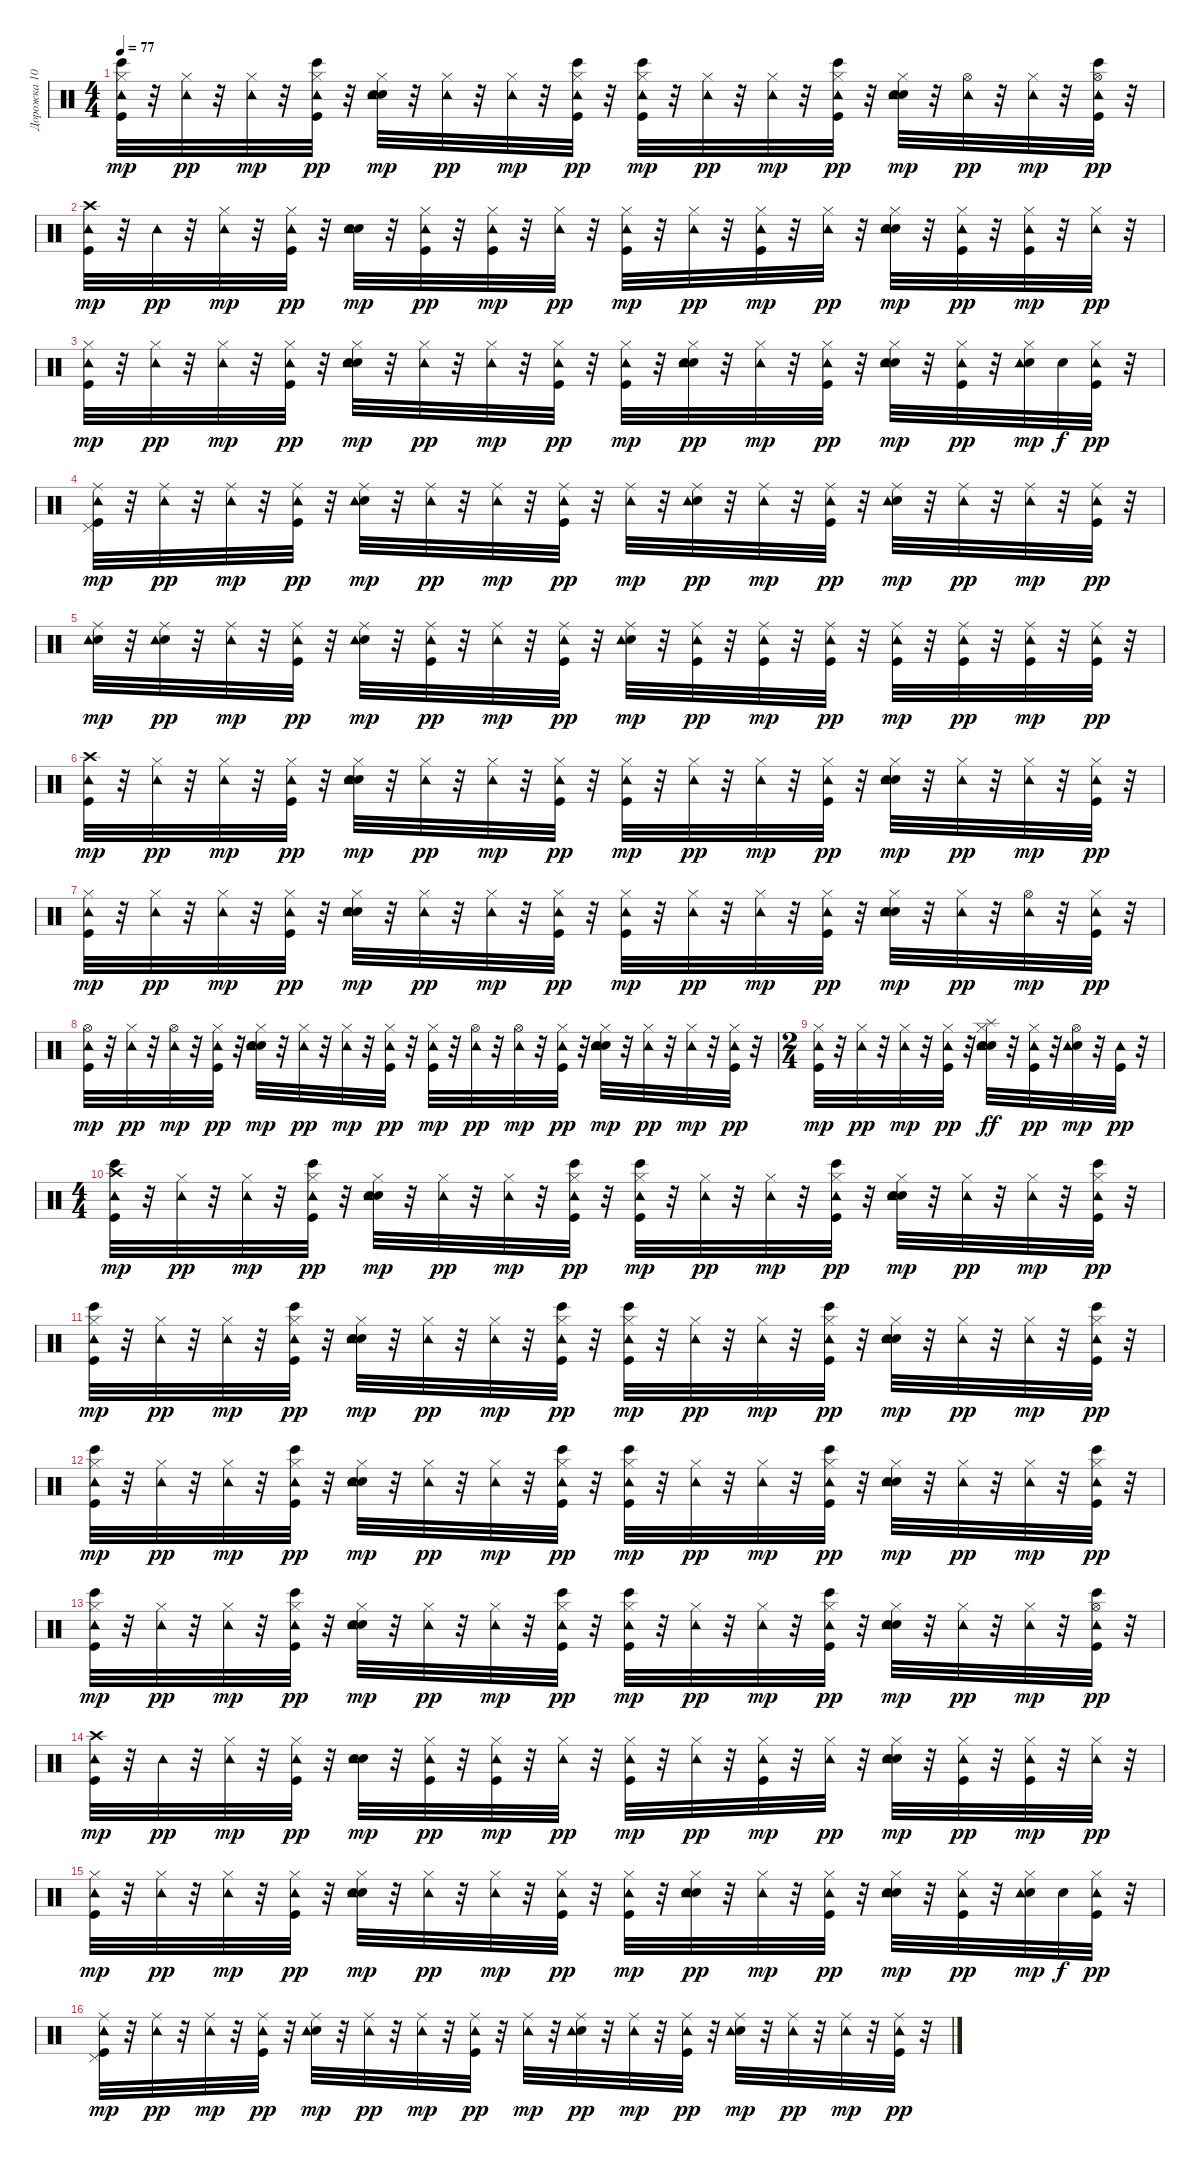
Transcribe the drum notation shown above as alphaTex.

\track ("Дорожка 10" "Дорожка 10") {instrument percussion}
\staff {score}
\articulation defaults
\ts (4 4)
\tempo 77
\clef neutral
\ks c
("Bongo High (hit)" "Kick (hit)" "Hi-Hat (closed)" "Tambourine (hit)").32{dy mp} r.32 ("Hi-Hat (closed)" "Tambourine (hit)").32{dy pp} r.32 ("Hi-Hat (closed)" "Tambourine (hit)").32{dy mp} r.32 ("Bongo High (hit)" "Kick (hit)" "Hi-Hat (closed)" "Tambourine (hit)").32{dy pp} r.32 ("Snare (hit) 2" "Hand Clap (hit)" "Hi-Hat (closed)" "Tambourine (hit)").32{dy mp} r.32 ("Hi-Hat (closed)" "Tambourine (hit)").32{dy pp} r.32 ("Hi-Hat (closed)" "Tambourine (hit)").32{dy mp} r.32 ("Bongo High (hit)" "Kick (hit)" "Hi-Hat (closed)" "Tambourine (hit)").32{dy pp} r.32 ("Bongo High (hit)" "Kick (hit)" "Hi-Hat (closed)" "Tambourine (hit)").32{dy mp} r.32 ("Hi-Hat (closed)" "Tambourine (hit)").32{dy pp} r.32 ("Hi-Hat (closed)" "Tambourine (hit)").32{dy mp} r.32 ("Bongo High (hit)" "Kick (hit)" "Hi-Hat (closed)" "Tambourine (hit)").32{dy pp} r.32 ("Snare (hit) 2" "Hand Clap (hit)" "Hi-Hat (closed)" "Tambourine (hit)").32{dy mp} r.32 ("Hi-Hat (open)" "Tambourine (hit)").32{dy pp} r.32 ("Hi-Hat (closed)" "Tambourine (hit)").32{dy mp} r.32 ("Bongo High (hit)" "Kick (hit)" "Hi-Hat (open)" "Tambourine (hit)").32{dy pp} r.32 |
("Kick (hit)" "Crash high (hit)" "Tambourine (hit)").32{dy mp} r.32 "Tambourine (hit)".32{dy pp} r.32 ("Hi-Hat (closed)" "Tambourine (hit)").32{dy mp} r.32 ("Kick (hit)" "Hi-Hat (closed)" "Tambourine (hit)").32{dy pp} r.32 ("Snare (hit) 2" "Hand Clap (hit)" "Tambourine (hit)").32{dy mp} r.32 ("Kick (hit)" "Hi-Hat (closed)" "Tambourine (hit)").32{dy pp} r.32 ("Kick (hit)" "Hi-Hat (closed)" "Tambourine (hit)").32{dy mp} r.32 ("Hi-Hat (closed)" "Tambourine (hit)").32{dy pp} r.32 ("Kick (hit)" "Hi-Hat (closed)" "Tambourine (hit)").32{dy mp} r.32 ("Hi-Hat (closed)" "Tambourine (hit)").32{dy pp} r.32 ("Kick (hit)" "Hi-Hat (closed)" "Tambourine (hit)").32{dy mp} r.32 ("Hi-Hat (closed)" "Tambourine (hit)").32{dy pp} r.32 ("Snare (hit) 2" "Hand Clap (hit)" "Hi-Hat (closed)" "Tambourine (hit)").32{dy mp} r.32 ("Kick (hit)" "Hi-Hat (closed)" "Tambourine (hit)").32{dy pp} r.32 ("Kick (hit)" "Hi-Hat (closed)" "Tambourine (hit)").32{dy mp} r.32 ("Hi-Hat (closed)" "Tambourine (hit)").32{dy pp} r.32 |
("Kick (hit)" "Hi-Hat (closed)" "Tambourine (hit)").32{dy mp} r.32 ("Hi-Hat (closed)" "Tambourine (hit)").32{dy pp} r.32 ("Hi-Hat (closed)" "Tambourine (hit)").32{dy mp} r.32 ("Kick (hit)" "Hi-Hat (closed)" "Tambourine (hit)").32{dy pp} r.32 ("Snare (hit) 2" "Hand Clap (hit)" "Hi-Hat (closed)" "Tambourine (hit)").32{dy mp} r.32 ("Hi-Hat (closed)" "Tambourine (hit)").32{dy pp} r.32 ("Hi-Hat (closed)" "Tambourine (hit)").32{dy mp} r.32 ("Kick (hit)" "Hi-Hat (closed)" "Tambourine (hit)").32{dy pp} r.32 ("Kick (hit)" "Hi-Hat (closed)" "Tambourine (hit)").32{dy mp} r.32 ("Snare (hit) 2" "Hand Clap (hit)" "Hi-Hat (closed)" "Tambourine (hit)").32{dy pp} r.32 ("Hi-Hat (closed)" "Tambourine (hit)").32{dy mp} r.32 ("Kick (hit)" "Hi-Hat (closed)" "Tambourine (hit)").32{dy pp} r.32 ("Snare (hit) 2" "Hand Clap (hit)" "Hi-Hat (closed)" "Tambourine (hit)").32{dy mp} r.32 ("Kick (hit)" "Hi-Hat (closed)" "Tambourine (hit)").32{dy pp} r.32 ("Snare (hit) 2" "Hi-Hat (closed)" "Tambourine (hit)").32{dy mp} "Snare (hit) 2".32{dy f} ("Kick (hit)" "Hi-Hat (closed)" "Tambourine (hit)").32{dy pp} r.32 |
("Kick (hit)" "Pedal Hi-Hat (hit)" "Ride (middle)" "Tambourine (hit)").32{dy mp} r.32 ("Ride (middle)" "Tambourine (hit)").32{dy pp} r.32 ("Ride (middle)" "Tambourine (hit)").32{dy mp} r.32 ("Kick (hit)" "Ride (middle)" "Tambourine (hit)").32{dy pp} r.32 ("Snare (hit) 2" "Ride (middle)" "Tambourine (hit)").32{dy mp} r.32 ("Ride (middle)" "Tambourine (hit)").32{dy pp} r.32 ("Ride (middle)" "Tambourine (hit)").32{dy mp} r.32 ("Kick (hit)" "Ride (middle)" "Tambourine (hit)").32{dy pp} r.32 ("Ride (middle)" "Tambourine (hit)").32{dy mp} r.32 ("Snare (hit) 2" "Ride (middle)" "Tambourine (hit)").32{dy pp} r.32 ("Ride (middle)" "Tambourine (hit)").32{dy mp} r.32 ("Kick (hit)" "Ride (middle)" "Tambourine (hit)").32{dy pp} r.32 ("Snare (hit) 2" "Ride (middle)" "Tambourine (hit)").32{dy mp} r.32 ("Ride (middle)" "Tambourine (hit)").32{dy pp} r.32 ("Ride (middle)" "Tambourine (hit)").32{dy mp} r.32 ("Kick (hit)" "Ride (middle)" "Tambourine (hit)").32{dy pp} r.32 |
("Snare (hit) 2" "Ride (middle)" "Tambourine (hit)").32{dy mp} r.32 ("Snare (hit) 2" "Ride (middle)" "Tambourine (hit)").32{dy pp} r.32 ("Ride (middle)" "Tambourine (hit)").32{dy mp} r.32 ("Kick (hit)" "Ride (middle)" "Tambourine (hit)").32{dy pp} r.32 ("Snare (hit) 2" "Ride (middle)" "Tambourine (hit)").32{dy mp} r.32 ("Kick (hit)" "Ride (middle)" "Tambourine (hit)").32{dy pp} r.32 ("Ride (middle)" "Tambourine (hit)").32{dy mp} r.32 ("Kick (hit)" "Ride (middle)" "Tambourine (hit)").32{dy pp} r.32 ("Snare (hit) 2" "Ride (middle)" "Tambourine (hit)").32{dy mp} r.32 ("Kick (hit)" "Ride (middle)" "Tambourine (hit)").32{dy pp} r.32 ("Kick (hit)" "Ride (middle)" "Tambourine (hit)").32{dy mp} r.32 ("Kick (hit)" "Ride (middle)" "Tambourine (hit)").32{dy pp} r.32 ("Kick (hit)" "Ride (middle)" "Tambourine (hit)").32{dy mp} r.32 ("Kick (hit)" "Ride (middle)" "Tambourine (hit)").32{dy pp} r.32 ("Kick (hit)" "Ride (middle)" "Tambourine (hit)").32{dy mp} r.32 ("Kick (hit)" "Ride (middle)" "Tambourine (hit)").32{dy pp} r.32 |
("Kick (hit)" "Crash high (hit)" "Tambourine (hit)").32{dy mp} r.32 ("Hi-Hat (closed)" "Tambourine (hit)").32{dy pp} r.32 ("Hi-Hat (closed)" "Tambourine (hit)").32{dy mp} r.32 ("Kick (hit)" "Hi-Hat (closed)" "Tambourine (hit)").32{dy pp} r.32 ("Snare (hit) 2" "Hand Clap (hit)" "Hi-Hat (closed)" "Tambourine (hit)").32{dy mp} r.32 ("Hi-Hat (closed)" "Tambourine (hit)").32{dy pp} r.32 ("Hi-Hat (closed)" "Tambourine (hit)").32{dy mp} r.32 ("Kick (hit)" "Hi-Hat (closed)" "Tambourine (hit)").32{dy pp} r.32 ("Kick (hit)" "Hi-Hat (closed)" "Tambourine (hit)").32{dy mp} r.32 ("Hi-Hat (closed)" "Tambourine (hit)").32{dy pp} r.32 ("Hi-Hat (closed)" "Tambourine (hit)").32{dy mp} r.32 ("Kick (hit)" "Hi-Hat (closed)" "Tambourine (hit)").32{dy pp} r.32 ("Snare (hit) 2" "Hand Clap (hit)" "Hi-Hat (closed)" "Tambourine (hit)").32{dy mp} r.32 ("Hi-Hat (closed)" "Tambourine (hit)").32{dy pp} r.32 ("Hi-Hat (closed)" "Tambourine (hit)").32{dy mp} r.32 ("Kick (hit)" "Hi-Hat (closed)" "Tambourine (hit)").32{dy pp} r.32 |
("Kick (hit)" "Hi-Hat (closed)" "Tambourine (hit)").32{dy mp} r.32 ("Hi-Hat (closed)" "Tambourine (hit)").32{dy pp} r.32 ("Hi-Hat (closed)" "Tambourine (hit)").32{dy mp} r.32 ("Kick (hit)" "Hi-Hat (closed)" "Tambourine (hit)").32{dy pp} r.32 ("Snare (hit) 2" "Hand Clap (hit)" "Hi-Hat (closed)" "Tambourine (hit)").32{dy mp} r.32 ("Hi-Hat (closed)" "Tambourine (hit)").32{dy pp} r.32 ("Hi-Hat (closed)" "Tambourine (hit)").32{dy mp} r.32 ("Kick (hit)" "Hi-Hat (closed)" "Tambourine (hit)").32{dy pp} r.32 ("Kick (hit)" "Hi-Hat (closed)" "Tambourine (hit)").32{dy mp} r.32 ("Hi-Hat (closed)" "Tambourine (hit)").32{dy pp} r.32 ("Hi-Hat (closed)" "Tambourine (hit)").32{dy mp} r.32 ("Kick (hit)" "Hi-Hat (closed)" "Tambourine (hit)").32{dy pp} r.32 ("Snare (hit) 2" "Hand Clap (hit)" "Hi-Hat (closed)" "Tambourine (hit)").32{dy mp} r.32 ("Hi-Hat (closed)" "Tambourine (hit)").32{dy pp} r.32 ("Hi-Hat (open)" "Tambourine (hit)").32{dy mp} r.32 ("Kick (hit)" "Hi-Hat (closed)" "Tambourine (hit)").32{dy pp} r.32 |
("Kick (hit)" "Hi-Hat (open)" "Tambourine (hit)").32{dy mp} r.32 ("Hi-Hat (closed)" "Tambourine (hit)").32{dy pp} r.32 ("Hi-Hat (open)" "Tambourine (hit)").32{dy mp} r.32 ("Kick (hit)" "Hi-Hat (closed)" "Tambourine (hit)").32{dy pp} r.32 ("Snare (hit) 2" "Hand Clap (hit)" "Hi-Hat (closed)" "Tambourine (hit)").32{dy mp} r.32 ("Hi-Hat (closed)" "Tambourine (hit)").32{dy pp} r.32 ("Hi-Hat (closed)" "Tambourine (hit)").32{dy mp} r.32 ("Kick (hit)" "Hi-Hat (closed)" "Tambourine (hit)").32{dy pp} r.32 ("Kick (hit)" "Hi-Hat (closed)" "Tambourine (hit)").32{dy mp} r.32 ("Hi-Hat (open)" "Tambourine (hit)").32{dy pp} r.32 ("Hi-Hat (open)" "Tambourine (hit)").32{dy mp} r.32 ("Kick (hit)" "Hi-Hat (closed)" "Tambourine (hit)").32{dy pp} r.32 ("Snare (hit) 2" "Hand Clap (hit)" "Hi-Hat (closed)" "Tambourine (hit)").32{dy mp} r.32 ("Hi-Hat (closed)" "Tambourine (hit)").32{dy pp} r.32 ("Hi-Hat (closed)" "Tambourine (hit)").32{dy mp} r.32 ("Kick (hit)" "Hi-Hat (closed)" "Tambourine (hit)").32{dy pp} r.32 |
\ts (2 4)
("Kick (hit)" "Hi-Hat (closed)" "Tambourine (hit)").32{dy mp} r.32 ("Hi-Hat (closed)" "Tambourine (hit)").32{dy pp} r.32 ("Hi-Hat (closed)" "Tambourine (hit)").32{dy mp} r.32 ("Kick (hit)" "Hi-Hat (closed)" "Tambourine (hit)").32{dy pp} r.32 ("Snare (hit) 2" "Hand Clap (hit)" "Hi-Hat (closed)" "Tambourine (hit)" "Splash (hit)").32{dy ff} r.32 ("Kick (hit)" "Hi-Hat (closed)" "Tambourine (hit)").32{dy pp} r.32 ("Snare (hit) 2" "Hi-Hat (open)" "Tambourine (hit)").32{dy mp} r.32 ("Kick (hit)" "Tambourine (hit)").32{dy pp} r.32 |
\ts (4 4)
("Bongo High (hit)" "Kick (hit)" "Crash high (hit)" "Tambourine (hit)").32{dy mp} r.32 ("Hi-Hat (closed)" "Tambourine (hit)").32{dy pp} r.32 ("Hi-Hat (closed)" "Tambourine (hit)").32{dy mp} r.32 ("Bongo High (hit)" "Kick (hit)" "Hi-Hat (closed)" "Tambourine (hit)").32{dy pp} r.32 ("Snare (hit) 2" "Hand Clap (hit)" "Hi-Hat (closed)" "Tambourine (hit)").32{dy mp} r.32 ("Hi-Hat (closed)" "Tambourine (hit)").32{dy pp} r.32 ("Hi-Hat (closed)" "Tambourine (hit)").32{dy mp} r.32 ("Bongo High (hit)" "Kick (hit)" "Hi-Hat (closed)" "Tambourine (hit)").32{dy pp} r.32 ("Bongo High (hit)" "Kick (hit)" "Hi-Hat (closed)" "Tambourine (hit)").32{dy mp} r.32 ("Hi-Hat (closed)" "Tambourine (hit)").32{dy pp} r.32 ("Hi-Hat (closed)" "Tambourine (hit)").32{dy mp} r.32 ("Bongo High (hit)" "Kick (hit)" "Hi-Hat (closed)" "Tambourine (hit)").32{dy pp} r.32 ("Snare (hit) 2" "Hand Clap (hit)" "Hi-Hat (closed)" "Tambourine (hit)").32{dy mp} r.32 ("Hi-Hat (closed)" "Tambourine (hit)").32{dy pp} r.32 ("Hi-Hat (closed)" "Tambourine (hit)").32{dy mp} r.32 ("Bongo High (hit)" "Kick (hit)" "Hi-Hat (closed)" "Tambourine (hit)").32{dy pp} r.32 |
("Bongo High (hit)" "Kick (hit)" "Hi-Hat (closed)" "Tambourine (hit)").32{dy mp} r.32 ("Hi-Hat (closed)" "Tambourine (hit)").32{dy pp} r.32 ("Hi-Hat (closed)" "Tambourine (hit)").32{dy mp} r.32 ("Bongo High (hit)" "Kick (hit)" "Hi-Hat (closed)" "Tambourine (hit)").32{dy pp} r.32 ("Snare (hit) 2" "Hand Clap (hit)" "Hi-Hat (closed)" "Tambourine (hit)").32{dy mp} r.32 ("Hi-Hat (closed)" "Tambourine (hit)").32{dy pp} r.32 ("Hi-Hat (closed)" "Tambourine (hit)").32{dy mp} r.32 ("Bongo High (hit)" "Kick (hit)" "Hi-Hat (closed)" "Tambourine (hit)").32{dy pp} r.32 ("Bongo High (hit)" "Kick (hit)" "Hi-Hat (closed)" "Tambourine (hit)").32{dy mp} r.32 ("Hi-Hat (closed)" "Tambourine (hit)").32{dy pp} r.32 ("Hi-Hat (closed)" "Tambourine (hit)").32{dy mp} r.32 ("Bongo High (hit)" "Kick (hit)" "Hi-Hat (closed)" "Tambourine (hit)").32{dy pp} r.32 ("Snare (hit) 2" "Hand Clap (hit)" "Hi-Hat (closed)" "Tambourine (hit)").32{dy mp} r.32 ("Hi-Hat (closed)" "Tambourine (hit)").32{dy pp} r.32 ("Hi-Hat (closed)" "Tambourine (hit)").32{dy mp} r.32 ("Bongo High (hit)" "Kick (hit)" "Hi-Hat (closed)" "Tambourine (hit)").32{dy pp} r.32 |
("Bongo High (hit)" "Kick (hit)" "Hi-Hat (closed)" "Tambourine (hit)").32{dy mp} r.32 ("Hi-Hat (closed)" "Tambourine (hit)").32{dy pp} r.32 ("Hi-Hat (closed)" "Tambourine (hit)").32{dy mp} r.32 ("Bongo High (hit)" "Kick (hit)" "Hi-Hat (closed)" "Tambourine (hit)").32{dy pp} r.32 ("Snare (hit) 2" "Hand Clap (hit)" "Hi-Hat (closed)" "Tambourine (hit)").32{dy mp} r.32 ("Hi-Hat (closed)" "Tambourine (hit)").32{dy pp} r.32 ("Hi-Hat (closed)" "Tambourine (hit)").32{dy mp} r.32 ("Bongo High (hit)" "Kick (hit)" "Hi-Hat (closed)" "Tambourine (hit)").32{dy pp} r.32 ("Bongo High (hit)" "Kick (hit)" "Hi-Hat (closed)" "Tambourine (hit)").32{dy mp} r.32 ("Hi-Hat (closed)" "Tambourine (hit)").32{dy pp} r.32 ("Hi-Hat (closed)" "Tambourine (hit)").32{dy mp} r.32 ("Bongo High (hit)" "Kick (hit)" "Hi-Hat (closed)" "Tambourine (hit)").32{dy pp} r.32 ("Snare (hit) 2" "Hand Clap (hit)" "Hi-Hat (closed)" "Tambourine (hit)").32{dy mp} r.32 ("Hi-Hat (closed)" "Tambourine (hit)").32{dy pp} r.32 ("Hi-Hat (closed)" "Tambourine (hit)").32{dy mp} r.32 ("Bongo High (hit)" "Kick (hit)" "Hi-Hat (closed)" "Tambourine (hit)").32{dy pp} r.32 |
("Bongo High (hit)" "Kick (hit)" "Hi-Hat (closed)" "Tambourine (hit)").32{dy mp} r.32 ("Hi-Hat (closed)" "Tambourine (hit)").32{dy pp} r.32 ("Hi-Hat (closed)" "Tambourine (hit)").32{dy mp} r.32 ("Bongo High (hit)" "Kick (hit)" "Hi-Hat (closed)" "Tambourine (hit)").32{dy pp} r.32 ("Snare (hit) 2" "Hand Clap (hit)" "Hi-Hat (closed)" "Tambourine (hit)").32{dy mp} r.32 ("Hi-Hat (closed)" "Tambourine (hit)").32{dy pp} r.32 ("Hi-Hat (closed)" "Tambourine (hit)").32{dy mp} r.32 ("Bongo High (hit)" "Kick (hit)" "Hi-Hat (closed)" "Tambourine (hit)").32{dy pp} r.32 ("Bongo High (hit)" "Kick (hit)" "Hi-Hat (closed)" "Tambourine (hit)").32{dy mp} r.32 ("Hi-Hat (closed)" "Tambourine (hit)").32{dy pp} r.32 ("Hi-Hat (closed)" "Tambourine (hit)").32{dy mp} r.32 ("Bongo High (hit)" "Kick (hit)" "Hi-Hat (closed)" "Tambourine (hit)").32{dy pp} r.32 ("Snare (hit) 2" "Hand Clap (hit)" "Hi-Hat (closed)" "Tambourine (hit)").32{dy mp} r.32 ("Hi-Hat (closed)" "Tambourine (hit)").32{dy pp} r.32 ("Hi-Hat (closed)" "Tambourine (hit)").32{dy mp} r.32 ("Bongo High (hit)" "Kick (hit)" "Hi-Hat (open)" "Tambourine (hit)").32{dy pp} r.32 |
("Kick (hit)" "Crash high (hit)" "Tambourine (hit)").32{dy mp} r.32 "Tambourine (hit)".32{dy pp} r.32 ("Hi-Hat (closed)" "Tambourine (hit)").32{dy mp} r.32 ("Kick (hit)" "Hi-Hat (closed)" "Tambourine (hit)").32{dy pp} r.32 ("Snare (hit) 2" "Hand Clap (hit)" "Tambourine (hit)").32{dy mp} r.32 ("Kick (hit)" "Hi-Hat (closed)" "Tambourine (hit)").32{dy pp} r.32 ("Kick (hit)" "Hi-Hat (closed)" "Tambourine (hit)").32{dy mp} r.32 ("Hi-Hat (closed)" "Tambourine (hit)").32{dy pp} r.32 ("Kick (hit)" "Hi-Hat (closed)" "Tambourine (hit)").32{dy mp} r.32 ("Hi-Hat (closed)" "Tambourine (hit)").32{dy pp} r.32 ("Kick (hit)" "Hi-Hat (closed)" "Tambourine (hit)").32{dy mp} r.32 ("Hi-Hat (closed)" "Tambourine (hit)").32{dy pp} r.32 ("Snare (hit) 2" "Hand Clap (hit)" "Hi-Hat (closed)" "Tambourine (hit)").32{dy mp} r.32 ("Kick (hit)" "Hi-Hat (closed)" "Tambourine (hit)").32{dy pp} r.32 ("Kick (hit)" "Hi-Hat (closed)" "Tambourine (hit)").32{dy mp} r.32 ("Hi-Hat (closed)" "Tambourine (hit)").32{dy pp} r.32 |
("Kick (hit)" "Hi-Hat (closed)" "Tambourine (hit)").32{dy mp} r.32 ("Hi-Hat (closed)" "Tambourine (hit)").32{dy pp} r.32 ("Hi-Hat (closed)" "Tambourine (hit)").32{dy mp} r.32 ("Kick (hit)" "Hi-Hat (closed)" "Tambourine (hit)").32{dy pp} r.32 ("Snare (hit) 2" "Hand Clap (hit)" "Hi-Hat (closed)" "Tambourine (hit)").32{dy mp} r.32 ("Hi-Hat (closed)" "Tambourine (hit)").32{dy pp} r.32 ("Hi-Hat (closed)" "Tambourine (hit)").32{dy mp} r.32 ("Kick (hit)" "Hi-Hat (closed)" "Tambourine (hit)").32{dy pp} r.32 ("Kick (hit)" "Hi-Hat (closed)" "Tambourine (hit)").32{dy mp} r.32 ("Snare (hit) 2" "Hand Clap (hit)" "Hi-Hat (closed)" "Tambourine (hit)").32{dy pp} r.32 ("Hi-Hat (closed)" "Tambourine (hit)").32{dy mp} r.32 ("Kick (hit)" "Hi-Hat (closed)" "Tambourine (hit)").32{dy pp} r.32 ("Snare (hit) 2" "Hand Clap (hit)" "Hi-Hat (closed)" "Tambourine (hit)").32{dy mp} r.32 ("Kick (hit)" "Hi-Hat (closed)" "Tambourine (hit)").32{dy pp} r.32 ("Snare (hit) 2" "Hi-Hat (closed)" "Tambourine (hit)").32{dy mp} "Snare (hit) 2".32{dy f} ("Kick (hit)" "Hi-Hat (closed)" "Tambourine (hit)").32{dy pp} r.32 |
("Kick (hit)" "Pedal Hi-Hat (hit)" "Ride (middle)" "Tambourine (hit)").32{dy mp} r.32 ("Ride (middle)" "Tambourine (hit)").32{dy pp} r.32 ("Ride (middle)" "Tambourine (hit)").32{dy mp} r.32 ("Kick (hit)" "Ride (middle)" "Tambourine (hit)").32{dy pp} r.32 ("Snare (hit) 2" "Ride (middle)" "Tambourine (hit)").32{dy mp} r.32 ("Ride (middle)" "Tambourine (hit)").32{dy pp} r.32 ("Ride (middle)" "Tambourine (hit)").32{dy mp} r.32 ("Kick (hit)" "Ride (middle)" "Tambourine (hit)").32{dy pp} r.32 ("Ride (middle)" "Tambourine (hit)").32{dy mp} r.32 ("Snare (hit) 2" "Ride (middle)" "Tambourine (hit)").32{dy pp} r.32 ("Ride (middle)" "Tambourine (hit)").32{dy mp} r.32 ("Kick (hit)" "Ride (middle)" "Tambourine (hit)").32{dy pp} r.32 ("Snare (hit) 2" "Ride (middle)" "Tambourine (hit)").32{dy mp} r.32 ("Ride (middle)" "Tambourine (hit)").32{dy pp} r.32 ("Ride (middle)" "Tambourine (hit)").32{dy mp} r.32 ("Kick (hit)" "Ride (middle)" "Tambourine (hit)").32{dy pp} r.32
